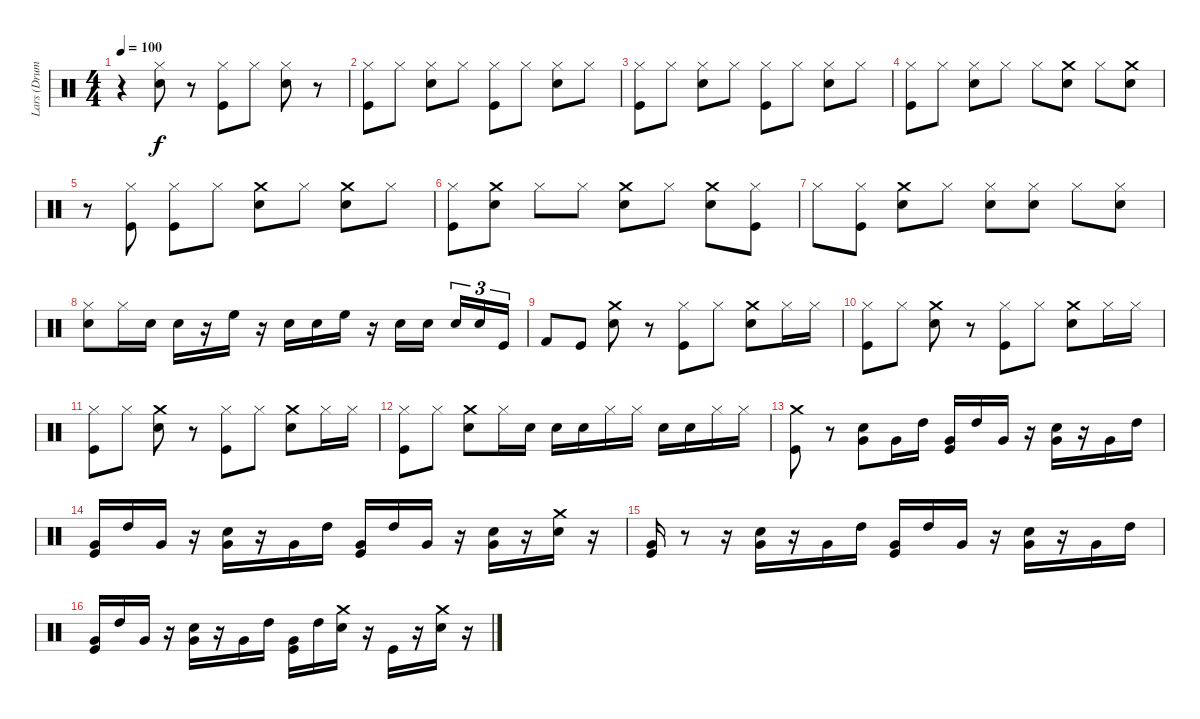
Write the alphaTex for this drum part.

\track ("Lars (Drums)" "Lars (Drum") {instrument percussion}
\staff {score}
\articulation defaults
\ts (4 4)
\tempo 100
\clef neutral
\ks c
r.4{dy f} ("Hi-Hat (closed)" "Snare (hit) 2").8 r.8 ("Kick (hit)" "Hi-Hat (closed)").8 "Hi-Hat (closed)".8 ("Snare (hit) 2" "Hi-Hat (closed)").8 r.8 |
("Hi-Hat (closed)" "Kick (hit)").8 "Hi-Hat (closed)".8 ("Snare (hit) 2" "Hi-Hat (closed)").8 "Hi-Hat (closed)".8 ("Kick (hit)" "Hi-Hat (closed)").8 "Hi-Hat (closed)".8 ("Snare (hit) 2" "Hi-Hat (closed)").8 "Hi-Hat (closed)".8 |
("Hi-Hat (closed)" "Kick (hit)").8 "Hi-Hat (closed)".8 ("Snare (hit) 2" "Hi-Hat (closed)").8 "Hi-Hat (closed)".8 ("Hi-Hat (closed)" "Kick (hit)").8 "Hi-Hat (closed)".8 ("Snare (hit) 2" "Hi-Hat (closed)").8 "Hi-Hat (closed)".8 |
("Hi-Hat (closed)" "Kick (hit)").8 "Hi-Hat (closed)".8 ("Snare (hit) 2" "Hi-Hat (closed)").8 "Hi-Hat (closed)".8 "Hi-Hat (closed)".8 ("Crash medium (hit)" "Snare (hit) 2").8 "Hi-Hat (closed)".8 ("Crash medium (hit)" "Snare (hit) 2").8 |
r.8 ("Kick (hit)" "Hi-Hat (closed)").8 ("Hi-Hat (closed)" "Kick (hit)").8 "Hi-Hat (closed)".8 ("Crash medium (hit)" "Snare (hit) 2").8 "Hi-Hat (closed)".8 ("Crash medium (hit)" "Snare (hit) 2").8 "Hi-Hat (closed)".8 |
("Kick (hit)" "Hi-Hat (closed)").8 ("Crash medium (hit)" "Snare (hit) 2").8 "Hi-Hat (closed)".8 "Hi-Hat (closed)".8 ("Snare (hit) 2" "Crash medium (hit)").8 "Hi-Hat (closed)".8 ("Crash medium (hit)" "Snare (hit) 2").8 ("Hi-Hat (closed)" "Kick (hit)").8 |
"Hi-Hat (closed)".8 ("Hi-Hat (closed)" "Kick (hit)").8 ("Crash medium (hit)" "Snare (hit) 2").8 "Hi-Hat (closed)".8 ("Snare (hit) 2" "Hi-Hat (closed)").8 ("Hi-Hat (closed)" "Snare (hit) 2").8 "Hi-Hat (closed)".8 ("Snare (hit) 2" "Hi-Hat (closed)").8 |
("Hi-Hat (closed)" "Snare (hit) 2").8 "Hi-Hat (closed)".16 "Snare (hit) 2".16 "Snare (hit) 2".16 r.16 "High Floor Tom (hit)".16 r.16 "Snare (hit) 2".16 "Snare (hit) 2".16 "High Floor Tom (hit)".16 r.16 "Snare (hit) 2".16 "Snare (hit) 2".16 "Snare (hit) 2".16{tu (3 2)} "Snare (hit) 2".16{tu (3 2)} "Kick (hit)".16{tu (3 2)} |
"Kick (hit) 2".8 "Kick (hit)".8 ("Crash medium (hit)" "Snare (hit) 2").8 r.8 ("Hi-Hat (closed)" "Kick (hit)").8 "Hi-Hat (closed)".8 ("Crash medium (hit)" "Snare (hit) 2").8 "Hi-Hat (closed)".16 "Hi-Hat (closed)".16 |
("Hi-Hat (closed)" "Kick (hit)").8 "Hi-Hat (closed)".8 ("Crash medium (hit)" "Snare (hit) 2").8 r.8 ("Hi-Hat (closed)" "Kick (hit)").8 "Hi-Hat (closed)".8 ("Crash medium (hit)" "Snare (hit) 2").8 "Hi-Hat (closed)".16 "Hi-Hat (closed)".16 |
("Hi-Hat (closed)" "Kick (hit)").8 "Hi-Hat (closed)".8 ("Crash medium (hit)" "Snare (hit) 2").8 r.8 ("Hi-Hat (closed)" "Kick (hit)").8 "Hi-Hat (closed)".8 ("Crash medium (hit)" "Snare (hit) 2").8 "Hi-Hat (closed)".16 "Hi-Hat (closed)".16 |
("Hi-Hat (closed)" "Kick (hit)").8 "Hi-Hat (closed)".8 ("Crash medium (hit)" "Snare (hit) 2").8 "Hi-Hat (closed)".16 "Snare (hit) 2".16 "Snare (hit) 2".16 "Snare (hit) 2".16 "Hi-Hat (closed)".16 "Hi-Hat (closed)".16 "Snare (hit) 2".16 "Snare (hit) 2".16 "Hi-Hat (closed)".16 "Hi-Hat (closed)".16 |
("Crash medium (hit)" "Kick (hit)").8 r.8 ("Very Low Tom (hit)" "Snare (hit) 2").8 "Very Low Tom (hit)".16 "High Tom (hit)".16 ("Very Low Tom (hit)" "Kick (hit)").16 "High Tom (hit)".16 "Very Low Tom (hit)".16 r.16 ("Very Low Tom (hit)" "Snare (hit) 2").16 r.16 "Very Low Tom (hit)".16 "High Tom (hit)".16 |
("Very Low Tom (hit)" "Kick (hit)").16 "High Tom (hit)".16 "Very Low Tom (hit)".16 r.16 ("Very Low Tom (hit)" "Snare (hit) 2").16 r.16 "Very Low Tom (hit)".16 "High Tom (hit)".16 ("Very Low Tom (hit)" "Kick (hit)").16 "High Tom (hit)".16 "Very Low Tom (hit)".16 r.16 ("Very Low Tom (hit)" "Snare (hit) 2").16 r.16 ("Crash medium (hit)" "Snare (hit) 2").16 r.16 |
("Very Low Tom (hit)" "Kick (hit)").16 r.8 r.16 ("Very Low Tom (hit)" "Snare (hit) 2").16 r.16 "Very Low Tom (hit)".16 "High Tom (hit)".16 ("Very Low Tom (hit)" "Kick (hit)").16 "High Tom (hit)".16 "Very Low Tom (hit)".16 r.16 ("Very Low Tom (hit)" "Snare (hit) 2").16 r.16 "Very Low Tom (hit)".16 "High Tom (hit)".16 |
("Very Low Tom (hit)" "Kick (hit)").16 "High Tom (hit)".16 "Very Low Tom (hit)".16 r.16 ("Very Low Tom (hit)" "Snare (hit) 2").16 r.16 "Very Low Tom (hit)".16 "High Tom (hit)".16 ("Very Low Tom (hit)" "Kick (hit)").16 "High Tom (hit)".16 ("Crash medium (hit)" "Snare (hit) 2").16 r.16 "Kick (hit)".16 r.16 ("Crash medium (hit)" "Snare (hit) 2").16 r.16
